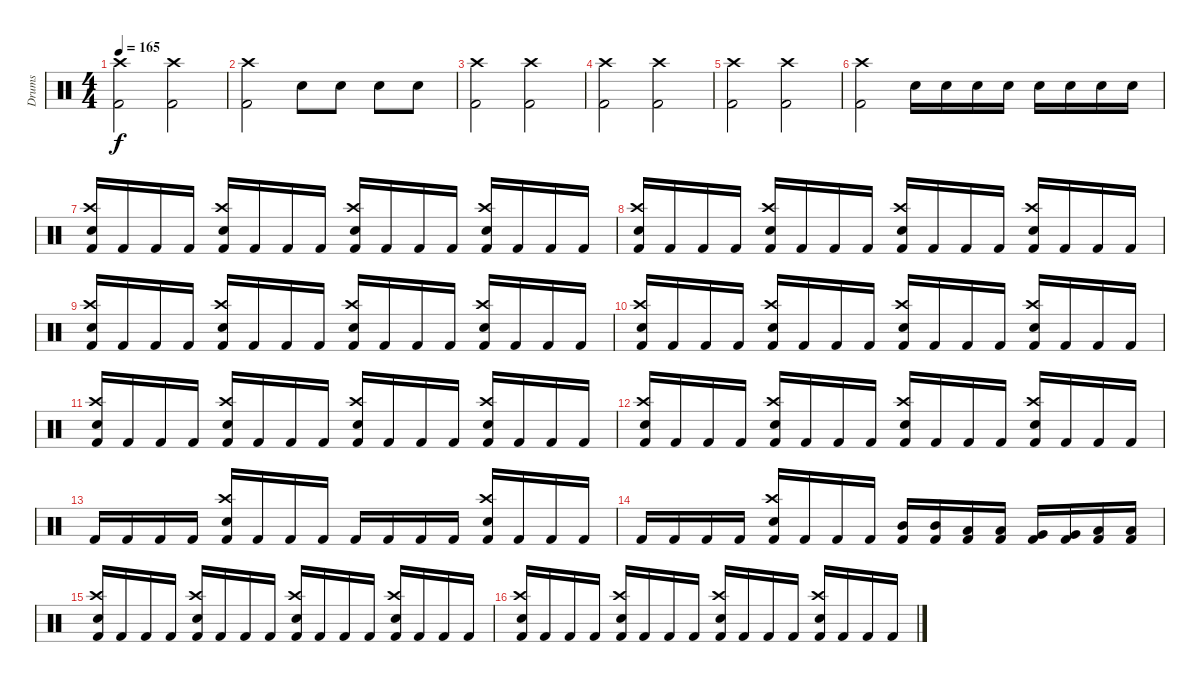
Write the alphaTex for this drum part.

\track ("Drums" "Drums") {instrument percussion}
\staff {score}
\articulation defaults
\ts (4 4)
\tempo 165
\clef neutral
\ks c
("Kick (hit) 2" "Crash high (hit)").2{dy f} ("Kick (hit) 2" "Crash high (hit)").2 |
("Kick (hit) 2" "Crash high (hit)").2 "Snare (hit) 2".8 "Snare (hit) 2".8 "Snare (hit) 2".8 "Snare (hit) 2".8 |
("Kick (hit) 2" "Crash high (hit)").2 ("Kick (hit) 2" "Crash high (hit)").2 |
("Kick (hit) 2" "Crash high (hit)").2 ("Kick (hit) 2" "Crash high (hit)").2 |
("Kick (hit) 2" "Crash high (hit)").2 ("Kick (hit) 2" "Crash high (hit)").2 |
("Kick (hit) 2" "Crash high (hit)").2 "Snare (hit) 2".16 "Snare (hit) 2".16 "Snare (hit) 2".16 "Snare (hit) 2".16 "Snare (hit) 2".16 "Snare (hit) 2".16 "Snare (hit) 2".16 "Snare (hit) 2".16 |
("Kick (hit) 2" "Snare (hit) 2" "Crash high (hit)").16 "Kick (hit) 2".16 "Kick (hit) 2".16 "Kick (hit) 2".16 ("Kick (hit) 2" "Snare (hit) 2" "Crash high (hit)").16 "Kick (hit) 2".16 "Kick (hit) 2".16 "Kick (hit) 2".16 ("Kick (hit) 2" "Snare (hit) 2" "Crash high (hit)").16 "Kick (hit) 2".16 "Kick (hit) 2".16 "Kick (hit) 2".16 ("Kick (hit) 2" "Snare (hit) 2" "Crash high (hit)").16 "Kick (hit) 2".16 "Kick (hit) 2".16 "Kick (hit) 2".16 |
("Kick (hit) 2" "Snare (hit) 2" "Crash high (hit)").16 "Kick (hit) 2".16 "Kick (hit) 2".16 "Kick (hit) 2".16 ("Kick (hit) 2" "Snare (hit) 2" "Crash high (hit)").16 "Kick (hit) 2".16 "Kick (hit) 2".16 "Kick (hit) 2".16 ("Kick (hit) 2" "Snare (hit) 2" "Crash high (hit)").16 "Kick (hit) 2".16 "Kick (hit) 2".16 "Kick (hit) 2".16 ("Kick (hit) 2" "Snare (hit) 2" "Crash high (hit)").16 "Kick (hit) 2".16 "Kick (hit) 2".16 "Kick (hit) 2".16 |
("Kick (hit) 2" "Snare (hit) 2" "Crash high (hit)").16 "Kick (hit) 2".16 "Kick (hit) 2".16 "Kick (hit) 2".16 ("Kick (hit) 2" "Snare (hit) 2" "Crash high (hit)").16 "Kick (hit) 2".16 "Kick (hit) 2".16 "Kick (hit) 2".16 ("Kick (hit) 2" "Snare (hit) 2" "Crash high (hit)").16 "Kick (hit) 2".16 "Kick (hit) 2".16 "Kick (hit) 2".16 ("Kick (hit) 2" "Snare (hit) 2" "Crash high (hit)").16 "Kick (hit) 2".16 "Kick (hit) 2".16 "Kick (hit) 2".16 |
("Kick (hit) 2" "Snare (hit) 2" "Crash high (hit)").16 "Kick (hit) 2".16 "Kick (hit) 2".16 "Kick (hit) 2".16 ("Kick (hit) 2" "Snare (hit) 2" "Crash high (hit)").16 "Kick (hit) 2".16 "Kick (hit) 2".16 "Kick (hit) 2".16 ("Kick (hit) 2" "Snare (hit) 2" "Crash high (hit)").16 "Kick (hit) 2".16 "Kick (hit) 2".16 "Kick (hit) 2".16 ("Kick (hit) 2" "Snare (hit) 2" "Crash high (hit)").16 "Kick (hit) 2".16 "Kick (hit) 2".16 "Kick (hit) 2".16 |
("Kick (hit) 2" "Snare (hit) 2" "Crash high (hit)").16 "Kick (hit) 2".16 "Kick (hit) 2".16 "Kick (hit) 2".16 ("Kick (hit) 2" "Snare (hit) 2" "Crash high (hit)").16 "Kick (hit) 2".16 "Kick (hit) 2".16 "Kick (hit) 2".16 ("Kick (hit) 2" "Snare (hit) 2" "Crash high (hit)").16 "Kick (hit) 2".16 "Kick (hit) 2".16 "Kick (hit) 2".16 ("Kick (hit) 2" "Snare (hit) 2" "Crash high (hit)").16 "Kick (hit) 2".16 "Kick (hit) 2".16 "Kick (hit) 2".16 |
("Kick (hit) 2" "Snare (hit) 2" "Crash high (hit)").16 "Kick (hit) 2".16 "Kick (hit) 2".16 "Kick (hit) 2".16 ("Kick (hit) 2" "Snare (hit) 2" "Crash high (hit)").16 "Kick (hit) 2".16 "Kick (hit) 2".16 "Kick (hit) 2".16 ("Kick (hit) 2" "Snare (hit) 2" "Crash high (hit)").16 "Kick (hit) 2".16 "Kick (hit) 2".16 "Kick (hit) 2".16 ("Kick (hit) 2" "Snare (hit) 2" "Crash high (hit)").16 "Kick (hit) 2".16 "Kick (hit) 2".16 "Kick (hit) 2".16 |
"Kick (hit) 2".16 "Kick (hit) 2".16 "Kick (hit) 2".16 "Kick (hit) 2".16 ("Kick (hit) 2" "Snare (hit) 2" "Crash high (hit)").16 "Kick (hit) 2".16 "Kick (hit) 2".16 "Kick (hit) 2".16 "Kick (hit) 2".16 "Kick (hit) 2".16 "Kick (hit) 2".16 "Kick (hit) 2".16 ("Kick (hit) 2" "Snare (hit) 2" "Crash high (hit)").16 "Kick (hit) 2".16 "Kick (hit) 2".16 "Kick (hit) 2".16 |
"Kick (hit) 2".16 "Kick (hit) 2".16 "Kick (hit) 2".16 "Kick (hit) 2".16 ("Kick (hit) 2" "Snare (hit) 2" "Crash high (hit)").16 "Kick (hit) 2".16 "Kick (hit) 2".16 "Kick (hit) 2".16 ("Kick (hit) 2" "Mid Tom (hit)").16 ("Kick (hit) 2" "Mid Tom (hit)").16 ("Kick (hit) 2" "Low Tom (hit)").16 ("Kick (hit) 2" "Low Tom (hit)").16 ("Kick (hit) 2" "Very Low Tom (hit)").16 ("Kick (hit) 2" "Very Low Tom (hit)").16 ("Kick (hit) 2" "Low Floor Tom (hit)").16 ("Kick (hit) 2" "Low Floor Tom (hit)").16 |
("Kick (hit) 2" "Snare (hit) 2" "Crash high (hit)").16 "Kick (hit) 2".16 "Kick (hit) 2".16 "Kick (hit) 2".16 ("Kick (hit) 2" "Snare (hit) 2" "Crash high (hit)").16 "Kick (hit) 2".16 "Kick (hit) 2".16 "Kick (hit) 2".16 ("Kick (hit) 2" "Snare (hit) 2" "Crash high (hit)").16 "Kick (hit) 2".16 "Kick (hit) 2".16 "Kick (hit) 2".16 ("Kick (hit) 2" "Snare (hit) 2" "Crash high (hit)").16 "Kick (hit) 2".16 "Kick (hit) 2".16 "Kick (hit) 2".16 |
("Kick (hit) 2" "Snare (hit) 2" "Crash high (hit)").16 "Kick (hit) 2".16 "Kick (hit) 2".16 "Kick (hit) 2".16 ("Kick (hit) 2" "Snare (hit) 2" "Crash high (hit)").16 "Kick (hit) 2".16 "Kick (hit) 2".16 "Kick (hit) 2".16 ("Kick (hit) 2" "Snare (hit) 2" "Crash high (hit)").16 "Kick (hit) 2".16 "Kick (hit) 2".16 "Kick (hit) 2".16 ("Kick (hit) 2" "Snare (hit) 2" "Crash high (hit)").16 "Kick (hit) 2".16 "Kick (hit) 2".16 "Kick (hit) 2".16
